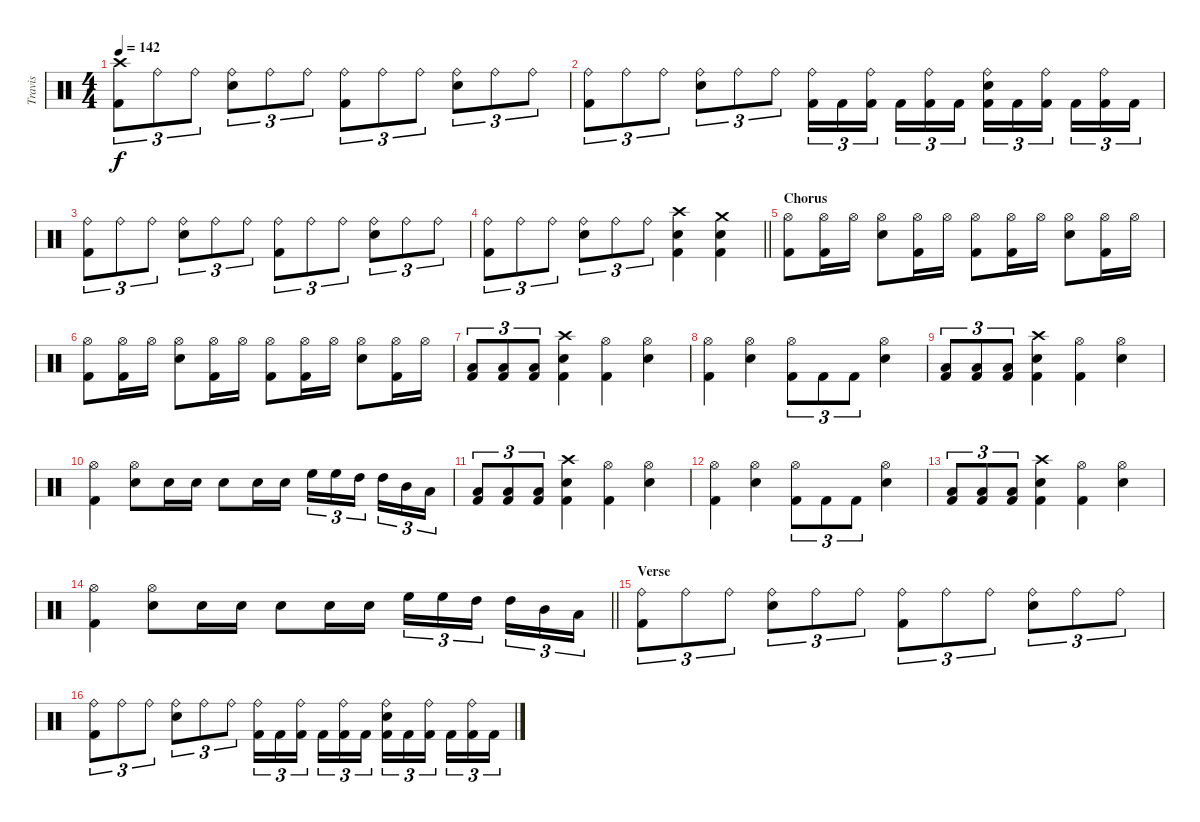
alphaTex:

\track ("Travis" "Travis") {instrument percussion}
\staff {score}
\articulation defaults
\ts (4 4)
\tempo 142
\clef neutral
\ks c
("Crash high (hit)" "Kick (hit) 2").8{tu (3 2) dy f} "Ride (bell)".8{tu (3 2)} "Ride (bell)".8{tu (3 2)} ("Ride (bell)" "Electric Snare (hit)").8{tu (3 2)} "Ride (bell)".8{tu (3 2)} "Ride (bell)".8{tu (3 2)} ("Ride (bell)" "Kick (hit) 2").8{tu (3 2)} "Ride (bell)".8{tu (3 2)} "Ride (bell)".8{tu (3 2)} ("Ride (bell)" "Electric Snare (hit)").8{tu (3 2)} "Ride (bell)".8{tu (3 2)} "Ride (bell)".8{tu (3 2)} |
("Ride (bell)" "Kick (hit) 2").8{tu (3 2)} "Ride (bell)".8{tu (3 2)} "Ride (bell)".8{tu (3 2)} ("Ride (bell)" "Electric Snare (hit)").8{tu (3 2)} "Ride (bell)".8{tu (3 2)} "Ride (bell)".8{tu (3 2)} ("Ride (bell)" "Kick (hit) 2").16{tu (3 2)} "Kick (hit) 2".16{tu (3 2)} ("Ride (bell)" "Kick (hit) 2").16{tu (3 2) beam splitsecondary} "Kick (hit) 2".16{tu (3 2)} ("Ride (bell)" "Kick (hit) 2").16{tu (3 2)} "Kick (hit) 2".16{tu (3 2)} ("Ride (bell)" "Electric Snare (hit)" "Kick (hit) 2").16{tu (3 2)} "Kick (hit) 2".16{tu (3 2)} ("Ride (bell)" "Kick (hit) 2").16{tu (3 2) beam splitsecondary} "Kick (hit) 2".16{tu (3 2)} ("Ride (bell)" "Kick (hit) 2").16{tu (3 2)} "Kick (hit) 2".16{tu (3 2)} |
("Ride (bell)" "Kick (hit) 2").8{tu (3 2)} "Ride (bell)".8{tu (3 2)} "Ride (bell)".8{tu (3 2)} ("Ride (bell)" "Electric Snare (hit)").8{tu (3 2)} "Ride (bell)".8{tu (3 2)} "Ride (bell)".8{tu (3 2)} ("Ride (bell)" "Kick (hit) 2").8{tu (3 2)} "Ride (bell)".8{tu (3 2)} "Ride (bell)".8{tu (3 2)} ("Ride (bell)" "Electric Snare (hit)").8{tu (3 2)} "Ride (bell)".8{tu (3 2)} "Ride (bell)".8{tu (3 2)} |
\barLineRight lightlight
("Ride (bell)" "Kick (hit) 2").8{tu (3 2)} "Ride (bell)".8{tu (3 2)} "Ride (bell)".8{tu (3 2)} ("Ride (bell)" "Electric Snare (hit)").8{tu (3 2)} "Ride (bell)".8{tu (3 2)} "Ride (bell)".8{tu (3 2)} ("Crash high (hit)" "Electric Snare (hit)" "Kick (hit) 2").4 ("Crash medium (hit)" "Electric Snare (hit)" "Kick (hit) 2").4 |
\section ("" "Chorus")
("Hi-Hat (open)" "Kick (hit) 2").8 ("Hi-Hat (open)" "Kick (hit) 2").16 "Hi-Hat (open)".16 ("Hi-Hat (open)" "Snare (hit) 2").8 ("Hi-Hat (open)" "Kick (hit) 2").16 "Hi-Hat (open)".16 ("Hi-Hat (open)" "Kick (hit) 2").8 ("Hi-Hat (open)" "Kick (hit) 2").16 "Hi-Hat (open)".16 ("Hi-Hat (open)" "Snare (hit) 2").8 ("Hi-Hat (open)" "Kick (hit) 2").16 "Hi-Hat (open)".16 |
("Hi-Hat (open)" "Kick (hit) 2").8 ("Hi-Hat (open)" "Kick (hit) 2").16 "Hi-Hat (open)".16 ("Hi-Hat (open)" "Snare (hit) 2").8 ("Hi-Hat (open)" "Kick (hit) 2").16 "Hi-Hat (open)".16 ("Hi-Hat (open)" "Kick (hit) 2").8 ("Hi-Hat (open)" "Kick (hit) 2").16 "Hi-Hat (open)".16 ("Hi-Hat (open)" "Snare (hit) 2").8 ("Hi-Hat (open)" "Kick (hit) 2").16 "Hi-Hat (open)".16 |
("Low Tom (hit)" "Kick (hit) 2").8{tu (3 2)} ("Low Tom (hit)" "Kick (hit) 2").8{tu (3 2)} ("Low Tom (hit)" "Kick (hit) 2").8{tu (3 2)} ("Crash high (hit)" "Snare (hit) 2" "Kick (hit) 2").4 ("Hi-Hat (open)" "Kick (hit) 2").4 ("Hi-Hat (open)" "Snare (hit) 2").4 |
("Hi-Hat (open)" "Kick (hit) 2").4 ("Hi-Hat (open)" "Snare (hit) 2").4 ("Hi-Hat (open)" "Kick (hit) 2").8{tu (3 2)} "Kick (hit) 2".8{tu (3 2)} "Kick (hit) 2".8{tu (3 2)} ("Hi-Hat (open)" "Snare (hit) 2").4 |
("Low Tom (hit)" "Kick (hit) 2").8{tu (3 2)} ("Low Tom (hit)" "Kick (hit) 2").8{tu (3 2)} ("Low Tom (hit)" "Kick (hit) 2").8{tu (3 2)} ("Crash high (hit)" "Snare (hit) 2" "Kick (hit) 2").4 ("Hi-Hat (open)" "Kick (hit) 2").4 ("Hi-Hat (open)" "Snare (hit) 2").4 |
("Hi-Hat (open)" "Kick (hit) 2").4 ("Hi-Hat (open)" "Snare (hit) 2").8 "Snare (hit) 2".16 "Snare (hit) 2".16 "Snare (hit) 2".8 "Snare (hit) 2".16 "Snare (hit) 2".16 "High Floor Tom (hit)".16{tu (3 2)} "High Floor Tom (hit)".16{tu (3 2)} "High Tom (hit)".16{tu (3 2) beam splitsecondary} "High Tom (hit)".16{tu (3 2)} "Mid Tom (hit)".16{tu (3 2)} "Low Tom (hit)".16{tu (3 2)} |
("Low Tom (hit)" "Kick (hit) 2").8{tu (3 2)} ("Low Tom (hit)" "Kick (hit) 2").8{tu (3 2)} ("Low Tom (hit)" "Kick (hit) 2").8{tu (3 2)} ("Crash high (hit)" "Snare (hit) 2" "Kick (hit) 2").4 ("Hi-Hat (open)" "Kick (hit) 2").4 ("Hi-Hat (open)" "Snare (hit) 2").4 |
("Hi-Hat (open)" "Kick (hit) 2").4 ("Hi-Hat (open)" "Snare (hit) 2").4 ("Hi-Hat (open)" "Kick (hit) 2").8{tu (3 2)} "Kick (hit) 2".8{tu (3 2)} "Kick (hit) 2".8{tu (3 2)} ("Hi-Hat (open)" "Snare (hit) 2").4 |
("Low Tom (hit)" "Kick (hit) 2").8{tu (3 2)} ("Low Tom (hit)" "Kick (hit) 2").8{tu (3 2)} ("Low Tom (hit)" "Kick (hit) 2").8{tu (3 2)} ("Crash high (hit)" "Snare (hit) 2" "Kick (hit) 2").4 ("Hi-Hat (open)" "Kick (hit) 2").4 ("Hi-Hat (open)" "Snare (hit) 2").4 |
\barLineRight lightlight
("Hi-Hat (open)" "Kick (hit) 2").4 ("Hi-Hat (open)" "Snare (hit) 2").8 "Snare (hit) 2".16 "Snare (hit) 2".16 "Snare (hit) 2".8 "Snare (hit) 2".16 "Snare (hit) 2".16 "High Floor Tom (hit)".16{tu (3 2)} "High Floor Tom (hit)".16{tu (3 2)} "High Tom (hit)".16{tu (3 2) beam splitsecondary} "High Tom (hit)".16{tu (3 2)} "Mid Tom (hit)".16{tu (3 2)} "Low Tom (hit)".16{tu (3 2)} |
\section ("" "Verse")
("Ride (bell)" "Kick (hit) 2").8{tu (3 2)} "Ride (bell)".8{tu (3 2)} "Ride (bell)".8{tu (3 2)} ("Ride (bell)" "Electric Snare (hit)").8{tu (3 2)} "Ride (bell)".8{tu (3 2)} "Ride (bell)".8{tu (3 2)} ("Ride (bell)" "Kick (hit) 2").8{tu (3 2)} "Ride (bell)".8{tu (3 2)} "Ride (bell)".8{tu (3 2)} ("Ride (bell)" "Electric Snare (hit)").8{tu (3 2)} "Ride (bell)".8{tu (3 2)} "Ride (bell)".8{tu (3 2)} |
("Ride (bell)" "Kick (hit) 2").8{tu (3 2)} "Ride (bell)".8{tu (3 2)} "Ride (bell)".8{tu (3 2)} ("Ride (bell)" "Electric Snare (hit)").8{tu (3 2)} "Ride (bell)".8{tu (3 2)} "Ride (bell)".8{tu (3 2)} ("Ride (bell)" "Kick (hit) 2").16{tu (3 2)} "Kick (hit) 2".16{tu (3 2)} ("Ride (bell)" "Kick (hit) 2").16{tu (3 2) beam splitsecondary} "Kick (hit) 2".16{tu (3 2)} ("Ride (bell)" "Kick (hit) 2").16{tu (3 2)} "Kick (hit) 2".16{tu (3 2)} ("Ride (bell)" "Electric Snare (hit)" "Kick (hit) 2").16{tu (3 2)} "Kick (hit) 2".16{tu (3 2)} ("Ride (bell)" "Kick (hit) 2").16{tu (3 2) beam splitsecondary} "Kick (hit) 2".16{tu (3 2)} ("Ride (bell)" "Kick (hit) 2").16{tu (3 2)} "Kick (hit) 2".16{tu (3 2)}
